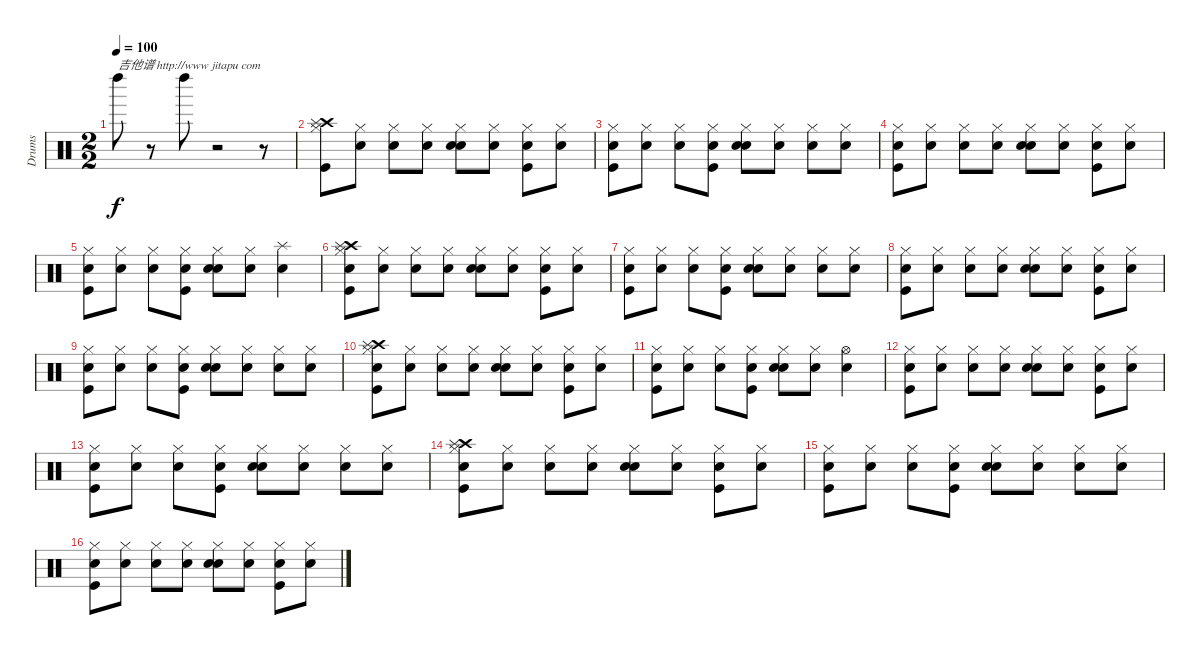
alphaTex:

\track ("Drums" "Drums") {instrument percussion}
\staff {score}
\articulation defaults
\ts (2 2)
\tempo 100
\clef neutral
\ks c "Left Maraca (hit)".8{txt "吉他谱 http://www jitapu com" dy f}
r.8 "Left Maraca (hit)".8 r.2 r.8 |
("Kick (hit)" "Crash high (hit)" "Splash (hit)" "Hi-Hat (closed)").8 ("Snare (hit)" "Hi-Hat (closed)").8 ("Snare (hit)" "Hi-Hat (closed)").8 ("Snare (hit)" "Hi-Hat (closed)").8 ("Snare (hit)" "Snare (hit) 2" "Hi-Hat (closed)").8 ("Snare (hit)" "Hi-Hat (closed)").8 ("Snare (hit)" "Kick (hit)" "Hi-Hat (closed)").8 ("Snare (hit)" "Hi-Hat (closed)").8 |
("Snare (hit)" "Kick (hit)" "Hi-Hat (closed)").8 ("Snare (hit)" "Hi-Hat (closed)").8 ("Snare (hit)" "Hi-Hat (closed)").8 ("Snare (hit)" "Kick (hit)" "Hi-Hat (closed)").8 ("Snare (hit)" "Snare (hit) 2" "Hi-Hat (closed)").8 ("Snare (hit)" "Hi-Hat (closed)").8 ("Snare (hit)" "Hi-Hat (closed)").8 ("Snare (hit)" "Hi-Hat (closed)").8 |
("Snare (hit)" "Kick (hit)" "Hi-Hat (closed)").8 ("Snare (hit)" "Hi-Hat (closed)").8 ("Snare (hit)" "Hi-Hat (closed)").8 ("Snare (hit)" "Hi-Hat (closed)").8 ("Snare (hit)" "Snare (hit) 2" "Hi-Hat (closed)").8 ("Snare (hit)" "Hi-Hat (closed)").8 ("Snare (hit)" "Kick (hit)" "Hi-Hat (closed)").8 ("Snare (hit)" "Hi-Hat (closed)").8 |
("Snare (hit)" "Kick (hit)" "Hi-Hat (closed)").8 ("Snare (hit)" "Hi-Hat (closed)").8 ("Snare (hit)" "Hi-Hat (closed)").8 ("Snare (hit)" "Kick (hit)" "Hi-Hat (closed)").8 ("Snare (hit)" "Snare (hit) 2" "Hi-Hat (closed)").8 ("Snare (hit)" "Hi-Hat (closed)").8 ("Snare (hit)" "Splash (hit)").4 |
("Snare (hit)" "Kick (hit)" "Crash high (hit)" "Splash (hit)" "Hi-Hat (closed)").8 ("Snare (hit)" "Hi-Hat (closed)").8 ("Snare (hit)" "Hi-Hat (closed)").8 ("Snare (hit)" "Hi-Hat (closed)").8 ("Snare (hit)" "Snare (hit) 2" "Hi-Hat (closed)").8 ("Snare (hit)" "Hi-Hat (closed)").8 ("Snare (hit)" "Kick (hit)" "Hi-Hat (closed)").8 ("Snare (hit)" "Hi-Hat (closed)").8 |
("Snare (hit)" "Kick (hit)" "Hi-Hat (closed)").8 ("Snare (hit)" "Hi-Hat (closed)").8 ("Snare (hit)" "Hi-Hat (closed)").8 ("Snare (hit)" "Kick (hit)" "Hi-Hat (closed)").8 ("Snare (hit)" "Snare (hit) 2" "Hi-Hat (closed)").8 ("Snare (hit)" "Hi-Hat (closed)").8 ("Snare (hit)" "Hi-Hat (closed)").8 ("Snare (hit)" "Hi-Hat (closed)").8 |
("Snare (hit)" "Kick (hit)" "Hi-Hat (closed)").8 ("Snare (hit)" "Hi-Hat (closed)").8 ("Snare (hit)" "Hi-Hat (closed)").8 ("Snare (hit)" "Hi-Hat (closed)").8 ("Snare (hit)" "Snare (hit) 2" "Hi-Hat (closed)").8 ("Snare (hit)" "Hi-Hat (closed)").8 ("Snare (hit)" "Kick (hit)" "Hi-Hat (closed)").8 ("Snare (hit)" "Hi-Hat (closed)").8 |
("Snare (hit)" "Kick (hit)" "Hi-Hat (closed)").8 ("Snare (hit)" "Hi-Hat (closed)").8 ("Snare (hit)" "Hi-Hat (closed)").8 ("Snare (hit)" "Kick (hit)" "Hi-Hat (closed)").8 ("Snare (hit)" "Snare (hit) 2" "Hi-Hat (closed)").8 ("Snare (hit)" "Hi-Hat (closed)").8 ("Snare (hit)" "Hi-Hat (closed)").8 ("Snare (hit)" "Hi-Hat (closed)").8 |
("Snare (hit)" "Kick (hit)" "Crash high (hit)" "Splash (hit)" "Hi-Hat (closed)").8 ("Snare (hit)" "Hi-Hat (closed)").8 ("Snare (hit)" "Hi-Hat (closed)").8 ("Snare (hit)" "Hi-Hat (closed)").8 ("Snare (hit)" "Snare (hit) 2" "Hi-Hat (closed)").8 ("Snare (hit)" "Hi-Hat (closed)").8 ("Snare (hit)" "Kick (hit)" "Hi-Hat (closed)").8 ("Snare (hit)" "Hi-Hat (closed)").8 |
("Snare (hit)" "Kick (hit)" "Hi-Hat (closed)").8 ("Snare (hit)" "Hi-Hat (closed)").8 ("Snare (hit)" "Hi-Hat (closed)").8 ("Snare (hit)" "Kick (hit)" "Hi-Hat (closed)").8 ("Snare (hit)" "Snare (hit) 2" "Hi-Hat (closed)").8 ("Snare (hit)" "Hi-Hat (closed)").8 ("Snare (hit)" "Hi-Hat (open)").4 |
("Snare (hit)" "Kick (hit)" "Hi-Hat (closed)").8 ("Snare (hit)" "Hi-Hat (closed)").8 ("Snare (hit)" "Hi-Hat (closed)").8 ("Snare (hit)" "Hi-Hat (closed)").8 ("Snare (hit)" "Snare (hit) 2" "Hi-Hat (closed)").8 ("Snare (hit)" "Hi-Hat (closed)").8 ("Snare (hit)" "Kick (hit)" "Hi-Hat (closed)").8 ("Snare (hit)" "Hi-Hat (closed)").8 |
("Snare (hit)" "Kick (hit)" "Hi-Hat (closed)").8 ("Snare (hit)" "Hi-Hat (closed)").8 ("Snare (hit)" "Hi-Hat (closed)").8 ("Snare (hit)" "Kick (hit)" "Hi-Hat (closed)").8 ("Snare (hit)" "Snare (hit) 2" "Hi-Hat (closed)").8 ("Snare (hit)" "Hi-Hat (closed)").8 ("Snare (hit)" "Hi-Hat (closed)").8 ("Snare (hit)" "Hi-Hat (closed)").8 |
("Snare (hit)" "Kick (hit)" "Crash high (hit)" "Splash (hit)" "Hi-Hat (closed)").8 ("Snare (hit)" "Hi-Hat (closed)").8 ("Snare (hit)" "Hi-Hat (closed)").8 ("Snare (hit)" "Hi-Hat (closed)").8 ("Snare (hit)" "Snare (hit) 2" "Hi-Hat (closed)").8 ("Snare (hit)" "Hi-Hat (closed)").8 ("Snare (hit)" "Kick (hit)" "Hi-Hat (closed)").8 ("Snare (hit)" "Hi-Hat (closed)").8 |
("Snare (hit)" "Kick (hit)" "Hi-Hat (closed)").8 ("Snare (hit)" "Hi-Hat (closed)").8 ("Snare (hit)" "Hi-Hat (closed)").8 ("Snare (hit)" "Kick (hit)" "Hi-Hat (closed)").8 ("Snare (hit)" "Snare (hit) 2" "Hi-Hat (closed)").8 ("Snare (hit)" "Hi-Hat (closed)").8 ("Snare (hit)" "Hi-Hat (closed)").8 ("Snare (hit)" "Hi-Hat (closed)").8 |
("Snare (hit)" "Kick (hit)" "Hi-Hat (closed)").8 ("Snare (hit)" "Hi-Hat (closed)").8 ("Snare (hit)" "Hi-Hat (closed)").8 ("Snare (hit)" "Hi-Hat (closed)").8 ("Snare (hit)" "Snare (hit) 2" "Hi-Hat (closed)").8 ("Snare (hit)" "Hi-Hat (closed)").8 ("Snare (hit)" "Kick (hit)" "Hi-Hat (closed)").8 ("Snare (hit)" "Hi-Hat (closed)").8
